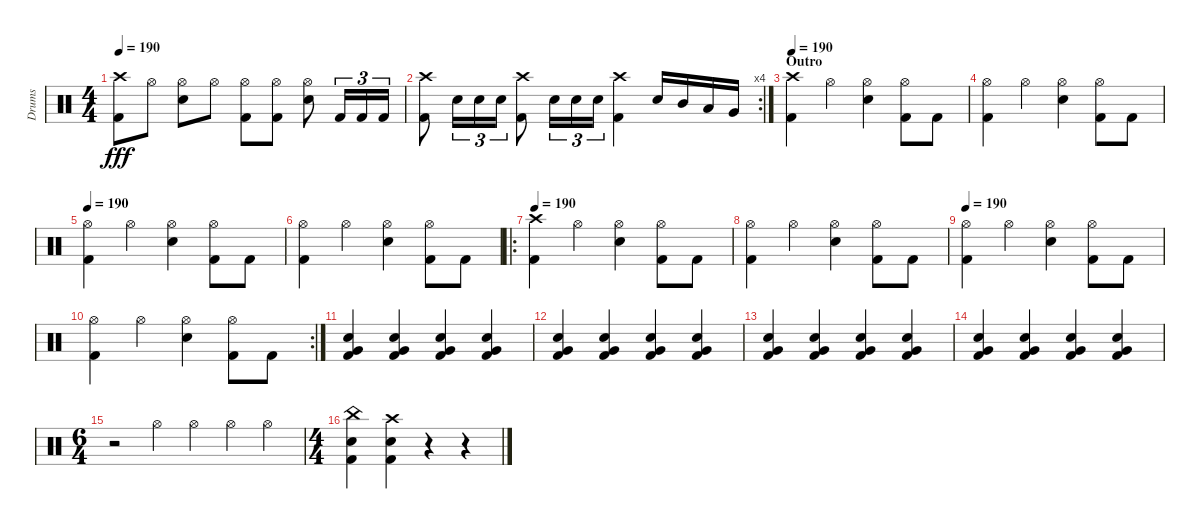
\track ("Drums" "Drums") {instrument percussion}
\staff {score}
\articulation defaults
\ts (4 4)
\tempo 190
\clef neutral
\ks c
("Crash high (hit)" "Kick (hit) 2").8{dy fff} "Hi-Hat (open)".8 ("Hi-Hat (open)" "Electric Snare (hit)").8 "Hi-Hat (open)".8 ("Hi-Hat (open)" "Kick (hit) 2").8 ("Hi-Hat (open)" "Kick (hit) 2").8 ("Hi-Hat (open)" "Electric Snare (hit)").8 "Kick (hit) 2".16{tu (3 2)} "Kick (hit) 2".16{tu (3 2)} "Kick (hit) 2".16{tu (3 2)} |
\rc 4
("Crash high (hit)" "Kick (hit) 2").8 "Electric Snare (hit)".16{tu (3 2)} "Electric Snare (hit)".16{tu (3 2)} "Electric Snare (hit)".16{tu (3 2)} ("Crash high (hit)" "Kick (hit) 2").8 "Electric Snare (hit)".16{tu (3 2)} "Electric Snare (hit)".16{tu (3 2)} "Electric Snare (hit)".16{tu (3 2)} ("Crash high (hit)" "Kick (hit) 2").4 "Electric Snare (hit)".16 "Mid Tom (hit)".16 "Low Tom (hit)".16 "Very Low Tom (hit)".16 |
\section ("" "Outro")
\tempo 190
("Kick (hit) 2" "Crash high (hit)").4 "Hi-Hat (open)".4 ("Hi-Hat (open)" "Electric Snare (hit)").4 ("Kick (hit) 2" "Hi-Hat (open)").8 "Kick (hit) 2".8 |
("Kick (hit) 2" "Hi-Hat (open)").4 "Hi-Hat (open)".4 ("Hi-Hat (open)" "Electric Snare (hit)").4 ("Kick (hit) 2" "Hi-Hat (open)").8 "Kick (hit) 2".8 |
\tempo 190
("Kick (hit) 2" "Hi-Hat (open)").4 "Hi-Hat (open)".4 ("Hi-Hat (open)" "Electric Snare (hit)").4 ("Kick (hit) 2" "Hi-Hat (open)").8 "Kick (hit) 2".8 |
("Kick (hit) 2" "Hi-Hat (open)").4 "Hi-Hat (open)".4 ("Hi-Hat (open)" "Electric Snare (hit)").4 ("Kick (hit) 2" "Hi-Hat (open)").8 "Kick (hit) 2".8 |
\ro
\tempo 190
("Kick (hit) 2" "Crash high (hit)").4 "Hi-Hat (open)".4 ("Hi-Hat (open)" "Electric Snare (hit)").4 ("Kick (hit) 2" "Hi-Hat (open)").8 "Kick (hit) 2".8 |
("Kick (hit) 2" "Hi-Hat (open)").4 "Hi-Hat (open)".4 ("Hi-Hat (open)" "Electric Snare (hit)").4 ("Kick (hit) 2" "Hi-Hat (open)").8 "Kick (hit) 2".8 |
\tempo 190
("Kick (hit) 2" "Hi-Hat (open)").4 "Hi-Hat (open)".4 ("Hi-Hat (open)" "Electric Snare (hit)").4 ("Kick (hit) 2" "Hi-Hat (open)").8 "Kick (hit) 2".8 |
\rc 2
("Kick (hit) 2" "Hi-Hat (open)").4 "Hi-Hat (open)".4 ("Hi-Hat (open)" "Electric Snare (hit)").4 ("Kick (hit) 2" "Hi-Hat (open)").8 "Kick (hit) 2".8 |
("Electric Snare (hit)" "Kick (hit) 2" "Very Low Tom (hit)").4 ("Electric Snare (hit)" "Kick (hit) 2" "Very Low Tom (hit)").4 ("Electric Snare (hit)" "Kick (hit) 2" "Very Low Tom (hit)").4 ("Electric Snare (hit)" "Kick (hit) 2" "Very Low Tom (hit)").4 |
("Electric Snare (hit)" "Kick (hit) 2" "Very Low Tom (hit)").4 ("Electric Snare (hit)" "Kick (hit) 2" "Very Low Tom (hit)").4 ("Electric Snare (hit)" "Kick (hit) 2" "Very Low Tom (hit)").4 ("Electric Snare (hit)" "Kick (hit) 2" "Very Low Tom (hit)").4 |
("Electric Snare (hit)" "Kick (hit) 2" "Very Low Tom (hit)").4 ("Electric Snare (hit)" "Kick (hit) 2" "Very Low Tom (hit)").4 ("Electric Snare (hit)" "Kick (hit) 2" "Very Low Tom (hit)").4 ("Electric Snare (hit)" "Kick (hit) 2" "Very Low Tom (hit)").4 |
("Electric Snare (hit)" "Kick (hit) 2" "Very Low Tom (hit)").4 ("Electric Snare (hit)" "Kick (hit) 2" "Very Low Tom (hit)").4 ("Electric Snare (hit)" "Kick (hit) 2" "Very Low Tom (hit)").4 ("Electric Snare (hit)" "Kick (hit) 2" "Very Low Tom (hit)").4 |
\ts (6 4)
r.2 "Hi-Hat (open)".4 "Hi-Hat (open)".4 "Hi-Hat (open)".4 "Hi-Hat (open)".4 |
\ts (4 4)
("China (hit)" "Kick (hit) 2" "Electric Snare (hit)").4 ("Crash high (hit)" "Kick (hit) 2" "Electric Snare (hit)").4 r.4 r.4
